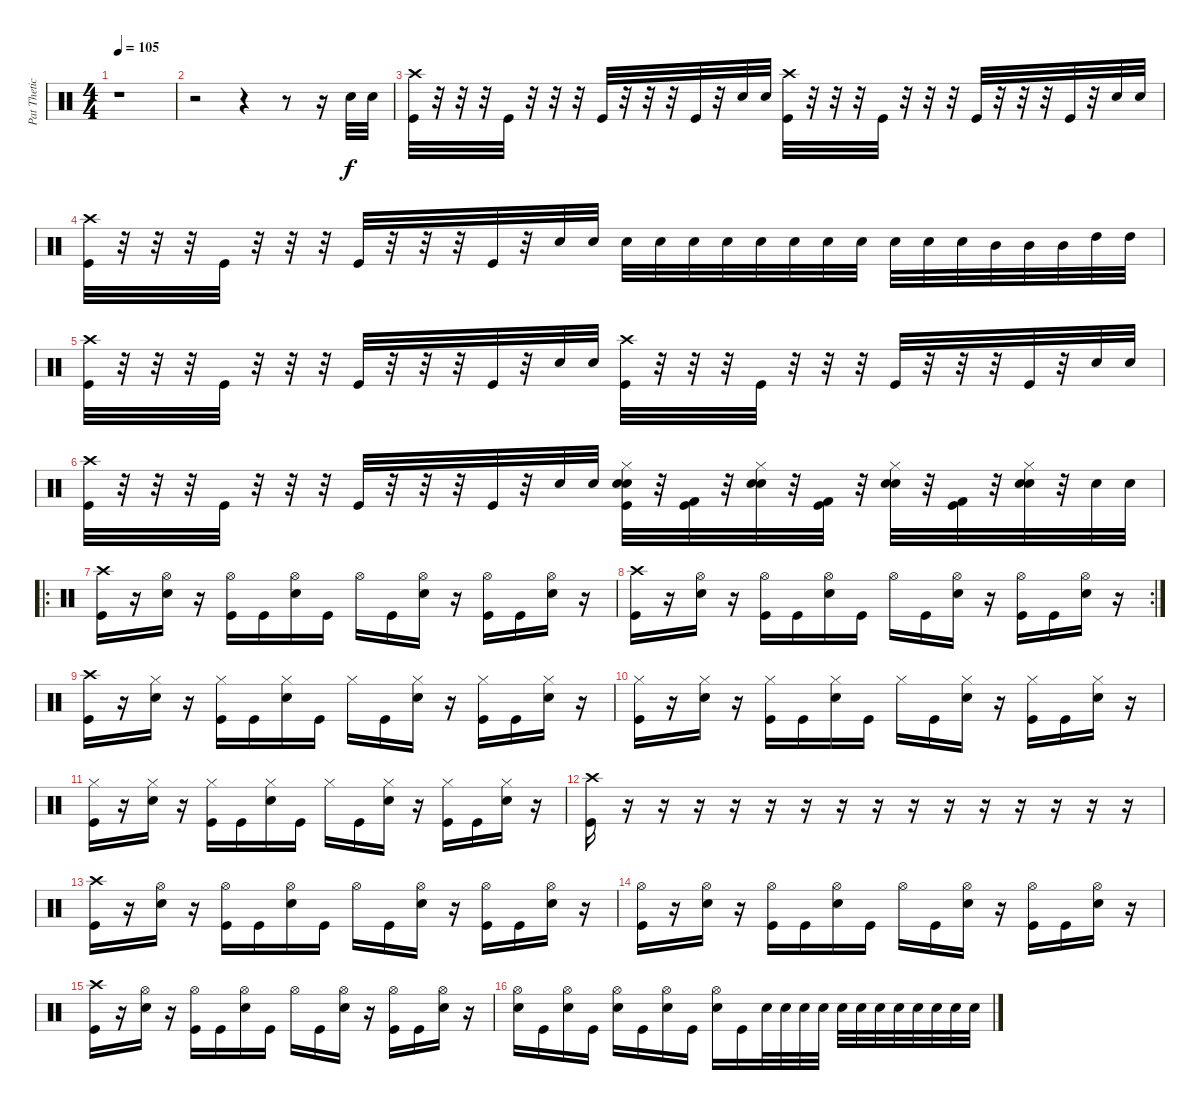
\track ("Pat Thetic" "Pat Thetic") {instrument percussion}
\staff {score}
\articulation defaults
\ts (4 4)
\tempo 105
\clef neutral
\ks c
r.1{dy f} |
r.2 r.4 r.8 r.16 "Snare (hit) 2".32 "Snare (hit) 2".32 |
("Crash high (hit)" "Kick (hit)").32 r.32 r.32 r.32 "Kick (hit)".32 r.32 r.32 r.32 "Kick (hit)".32 r.32 r.32 r.32 "Kick (hit)".32 r.32 "Snare (hit) 2".32 "Snare (hit) 2".32 ("Crash high (hit)" "Kick (hit)").32 r.32 r.32 r.32 "Kick (hit)".32 r.32 r.32 r.32 "Kick (hit)".32 r.32 r.32 r.32 "Kick (hit)".32 r.32 "Snare (hit) 2".32 "Snare (hit) 2".32 |
("Crash high (hit)" "Kick (hit)").32 r.32 r.32 r.32 "Kick (hit)".32 r.32 r.32 r.32 "Kick (hit)".32 r.32 r.32 r.32 "Kick (hit)".32 r.32 "Snare (hit) 2".32 "Snare (hit) 2".32 "Snare (hit) 2".32 "Snare (hit) 2".32 "Snare (hit) 2".32 "Snare (hit) 2".32 "Snare (hit) 2".32 "Snare (hit) 2".32 "Snare (hit) 2".32 "Snare (hit) 2".32 "Electric Snare (hit)".32 "Electric Snare (hit)".32 "Electric Snare (hit)".32 "Mid Tom (hit)".32 "Mid Tom (hit)".32 "Mid Tom (hit)".32 "High Tom (hit)".32 "High Tom (hit)".32 |
("Crash high (hit)" "Kick (hit)").32 r.32 r.32 r.32 "Kick (hit)".32 r.32 r.32 r.32 "Kick (hit)".32 r.32 r.32 r.32 "Kick (hit)".32 r.32 "Snare (hit) 2".32 "Snare (hit) 2".32 ("Crash high (hit)" "Kick (hit)").32 r.32 r.32 r.32 "Kick (hit)".32 r.32 r.32 r.32 "Kick (hit)".32 r.32 r.32 r.32 "Kick (hit)".32 r.32 "Snare (hit) 2".32 "Snare (hit) 2".32 |
("Crash high (hit)" "Kick (hit)").32 r.32 r.32 r.32 "Kick (hit)".32 r.32 r.32 r.32 "Kick (hit)".32 r.32 r.32 r.32 "Kick (hit)".32 r.32 "Snare (hit) 2".32 "Snare (hit) 2".32 ("Hi-Hat (closed)" "Snare (hit) 2" "Snare (hit) 2" "Kick (hit)").32 r.32 ("Kick (hit)" "Kick (hit) 2").32 r.32 ("Hi-Hat (closed)" "Snare (hit) 2" "Snare (hit) 2").32 r.32 ("Kick (hit) 2" "Kick (hit)").32 r.32 ("Hi-Hat (closed)" "Snare (hit) 2" "Snare (hit) 2").32 r.32 ("Kick (hit) 2" "Kick (hit)").32 r.32 ("Hi-Hat (closed)" "Snare (hit) 2" "Snare (hit) 2").32 r.32 "Snare (hit) 2".32 "Snare (hit) 2".32 |
\ro
("Crash high (hit)" "Kick (hit)").16 r.16 ("Hi-Hat (open)" "Snare (hit) 2").16 r.16 ("Hi-Hat (open)" "Kick (hit)").16 "Kick (hit)".16 ("Hi-Hat (open)" "Snare (hit) 2").16 "Kick (hit)".16 "Hi-Hat (open)".16 "Kick (hit)".16 ("Hi-Hat (open)" "Snare (hit) 2").16 r.16 ("Hi-Hat (open)" "Kick (hit)").16 "Kick (hit)".16 ("Hi-Hat (open)" "Snare (hit) 2").16 r.16 |
\rc 2
("Crash high (hit)" "Kick (hit)").16 r.16 ("Hi-Hat (open)" "Snare (hit) 2").16 r.16 ("Hi-Hat (open)" "Kick (hit)").16 "Kick (hit)".16 ("Hi-Hat (open)" "Snare (hit) 2").16 "Kick (hit)".16 "Hi-Hat (open)".16 "Kick (hit)".16 ("Hi-Hat (open)" "Snare (hit) 2").16 r.16 ("Hi-Hat (open)" "Kick (hit)").16 "Kick (hit)".16 ("Hi-Hat (open)" "Snare (hit) 2").16 r.16 |
("Crash high (hit)" "Kick (hit)").16 r.16 ("Hi-Hat (closed)" "Snare (hit) 2").16 r.16 ("Hi-Hat (closed)" "Kick (hit)").16 "Kick (hit)".16 ("Hi-Hat (closed)" "Snare (hit) 2").16 "Kick (hit)".16 "Hi-Hat (closed)".16 "Kick (hit)".16 ("Hi-Hat (closed)" "Snare (hit) 2").16 r.16 ("Hi-Hat (closed)" "Kick (hit)").16 "Kick (hit)".16 ("Hi-Hat (closed)" "Snare (hit) 2").16 r.16 |
("Hi-Hat (closed)" "Kick (hit)").16 r.16 ("Hi-Hat (closed)" "Snare (hit) 2").16 r.16 ("Hi-Hat (closed)" "Kick (hit)").16 "Kick (hit)".16 ("Hi-Hat (closed)" "Snare (hit) 2").16 "Kick (hit)".16 "Hi-Hat (closed)".16 "Kick (hit)".16 ("Hi-Hat (closed)" "Snare (hit) 2").16 r.16 ("Hi-Hat (closed)" "Kick (hit)").16 "Kick (hit)".16 ("Hi-Hat (closed)" "Snare (hit) 2").16 r.16 |
("Hi-Hat (closed)" "Kick (hit)").16 r.16 ("Hi-Hat (closed)" "Snare (hit) 2").16 r.16 ("Hi-Hat (closed)" "Kick (hit)").16 "Kick (hit)".16 ("Hi-Hat (closed)" "Snare (hit) 2").16 "Kick (hit)".16 "Hi-Hat (closed)".16 "Kick (hit)".16 ("Hi-Hat (closed)" "Snare (hit) 2").16 r.16 ("Hi-Hat (closed)" "Kick (hit)").16 "Kick (hit)".16 ("Hi-Hat (closed)" "Snare (hit) 2").16 r.16 |
("Crash high (hit)" "Kick (hit)").16 r.16 r.16 r.16 r.16 r.16 r.16 r.16 r.16 r.16 r.16 r.16 r.16 r.16 r.16 r.16 |
("Crash high (hit)" "Kick (hit)").16 r.16 ("Hi-Hat (open)" "Snare (hit) 2").16 r.16 ("Hi-Hat (open)" "Kick (hit)").16 "Kick (hit)".16 ("Hi-Hat (open)" "Snare (hit) 2").16 "Kick (hit)".16 "Hi-Hat (open)".16 "Kick (hit)".16 ("Hi-Hat (open)" "Snare (hit) 2").16 r.16 ("Hi-Hat (open)" "Kick (hit)").16 "Kick (hit)".16 ("Hi-Hat (open)" "Snare (hit) 2").16 r.16 |
("Hi-Hat (open)" "Kick (hit)").16 r.16 ("Hi-Hat (open)" "Snare (hit) 2").16 r.16 ("Hi-Hat (open)" "Kick (hit)").16 "Kick (hit)".16 ("Hi-Hat (open)" "Snare (hit) 2").16 "Kick (hit)".16 "Hi-Hat (open)".16 "Kick (hit)".16 ("Hi-Hat (open)" "Snare (hit) 2").16 r.16 ("Hi-Hat (open)" "Kick (hit)").16 "Kick (hit)".16 ("Hi-Hat (open)" "Snare (hit) 2").16 r.16 |
("Crash high (hit)" "Kick (hit)").16 r.16 ("Hi-Hat (open)" "Snare (hit) 2").16 r.16 ("Hi-Hat (open)" "Kick (hit)").16 "Kick (hit)".16 ("Hi-Hat (open)" "Snare (hit) 2").16 "Kick (hit)".16 "Hi-Hat (open)".16 "Kick (hit)".16 ("Hi-Hat (open)" "Snare (hit) 2").16 r.16 ("Hi-Hat (open)" "Kick (hit)").16 "Kick (hit)".16 ("Hi-Hat (open)" "Snare (hit) 2").16 r.16 |
("Snare (hit) 2" "Hi-Hat (open)").16 "Kick (hit)".16 ("Hi-Hat (open)" "Snare (hit) 2").16 "Kick (hit)".16 ("Hi-Hat (open)" "Snare (hit) 2").16 "Kick (hit)".16 ("Hi-Hat (open)" "Snare (hit) 2").16 "Kick (hit)".16 ("Hi-Hat (open)" "Snare (hit) 2").16 "Kick (hit)".16 "Snare (hit) 2".32 "Snare (hit) 2".32 "Snare (hit) 2".32 "Snare (hit) 2".32 "Snare (hit) 2".32 "Snare (hit) 2".32 "Snare (hit) 2".32 "Snare (hit) 2".32 "Snare (hit) 2".32 "Snare (hit) 2".32 "Snare (hit) 2".32 "Snare (hit) 2".32
